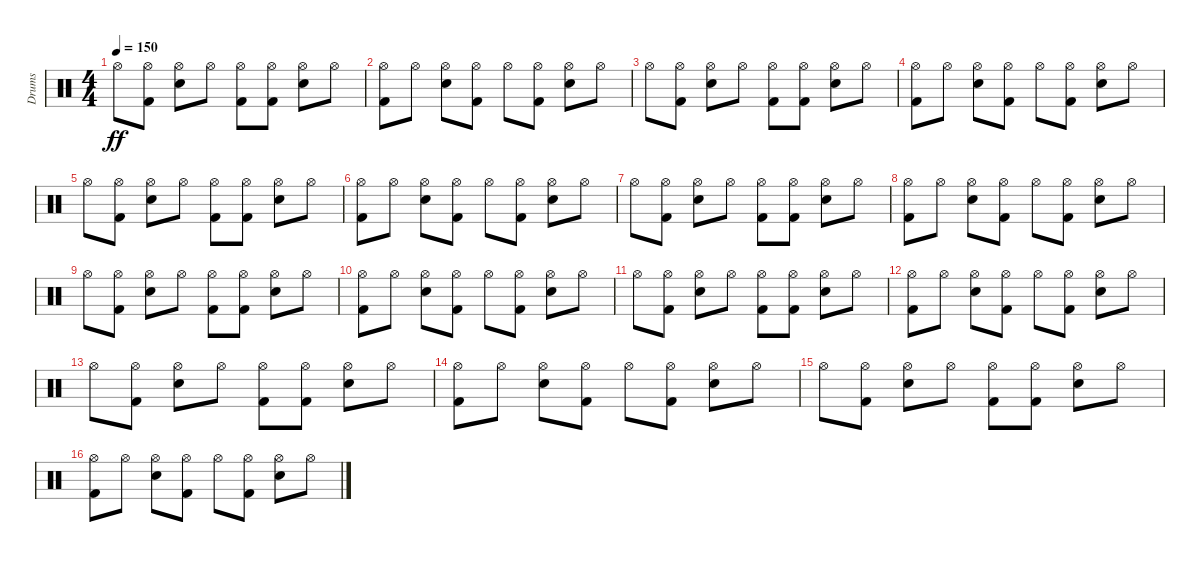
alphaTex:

\track ("Drums" "Drums") {instrument percussion}
\staff {score}
\articulation defaults
\ts (4 4)
\tempo 150
\clef neutral
\ks c "Hi-Hat (open)".8{dy ff}
("Kick (hit) 2" "Hi-Hat (open)").8 ("Snare (hit) 2" "Hi-Hat (open)").8 "Hi-Hat (open)".8 ("Kick (hit) 2" "Hi-Hat (open)").8 ("Kick (hit) 2" "Hi-Hat (open)").8 ("Snare (hit) 2" "Hi-Hat (open)").8 "Hi-Hat (open)".8 |
("Kick (hit) 2" "Hi-Hat (open)").8 "Hi-Hat (open)".8 ("Snare (hit) 2" "Hi-Hat (open)").8 ("Kick (hit) 2" "Hi-Hat (open)").8 "Hi-Hat (open)".8 ("Kick (hit) 2" "Hi-Hat (open)").8 ("Snare (hit) 2" "Hi-Hat (open)").8 "Hi-Hat (open)".8 |
"Hi-Hat (open)".8 ("Kick (hit) 2" "Hi-Hat (open)").8 ("Snare (hit) 2" "Hi-Hat (open)").8 "Hi-Hat (open)".8 ("Kick (hit) 2" "Hi-Hat (open)").8 ("Kick (hit) 2" "Hi-Hat (open)").8 ("Snare (hit) 2" "Hi-Hat (open)").8 "Hi-Hat (open)".8 |
("Kick (hit) 2" "Hi-Hat (open)").8 "Hi-Hat (open)".8 ("Snare (hit) 2" "Hi-Hat (open)").8 ("Kick (hit) 2" "Hi-Hat (open)").8 "Hi-Hat (open)".8 ("Kick (hit) 2" "Hi-Hat (open)").8 ("Snare (hit) 2" "Hi-Hat (open)").8 "Hi-Hat (open)".8 |
"Hi-Hat (open)".8 ("Kick (hit) 2" "Hi-Hat (open)").8 ("Snare (hit) 2" "Hi-Hat (open)").8 "Hi-Hat (open)".8 ("Kick (hit) 2" "Hi-Hat (open)").8 ("Kick (hit) 2" "Hi-Hat (open)").8 ("Snare (hit) 2" "Hi-Hat (open)").8 "Hi-Hat (open)".8 |
("Kick (hit) 2" "Hi-Hat (open)").8 "Hi-Hat (open)".8 ("Snare (hit) 2" "Hi-Hat (open)").8 ("Kick (hit) 2" "Hi-Hat (open)").8 "Hi-Hat (open)".8 ("Kick (hit) 2" "Hi-Hat (open)").8 ("Snare (hit) 2" "Hi-Hat (open)").8 "Hi-Hat (open)".8 |
"Hi-Hat (open)".8 ("Kick (hit) 2" "Hi-Hat (open)").8 ("Snare (hit) 2" "Hi-Hat (open)").8 "Hi-Hat (open)".8 ("Kick (hit) 2" "Hi-Hat (open)").8 ("Kick (hit) 2" "Hi-Hat (open)").8 ("Snare (hit) 2" "Hi-Hat (open)").8 "Hi-Hat (open)".8 |
("Kick (hit) 2" "Hi-Hat (open)").8 "Hi-Hat (open)".8 ("Snare (hit) 2" "Hi-Hat (open)").8 ("Kick (hit) 2" "Hi-Hat (open)").8 "Hi-Hat (open)".8 ("Kick (hit) 2" "Hi-Hat (open)").8 ("Snare (hit) 2" "Hi-Hat (open)").8 "Hi-Hat (open)".8 |
"Hi-Hat (open)".8 ("Kick (hit) 2" "Hi-Hat (open)").8 ("Snare (hit) 2" "Hi-Hat (open)").8 "Hi-Hat (open)".8 ("Kick (hit) 2" "Hi-Hat (open)").8 ("Kick (hit) 2" "Hi-Hat (open)").8 ("Snare (hit) 2" "Hi-Hat (open)").8 "Hi-Hat (open)".8 |
("Kick (hit) 2" "Hi-Hat (open)").8 "Hi-Hat (open)".8 ("Snare (hit) 2" "Hi-Hat (open)").8 ("Kick (hit) 2" "Hi-Hat (open)").8 "Hi-Hat (open)".8 ("Kick (hit) 2" "Hi-Hat (open)").8 ("Snare (hit) 2" "Hi-Hat (open)").8 "Hi-Hat (open)".8 |
"Hi-Hat (open)".8 ("Kick (hit) 2" "Hi-Hat (open)").8 ("Snare (hit) 2" "Hi-Hat (open)").8 "Hi-Hat (open)".8 ("Kick (hit) 2" "Hi-Hat (open)").8 ("Kick (hit) 2" "Hi-Hat (open)").8 ("Snare (hit) 2" "Hi-Hat (open)").8 "Hi-Hat (open)".8 |
("Kick (hit) 2" "Hi-Hat (open)").8 "Hi-Hat (open)".8 ("Snare (hit) 2" "Hi-Hat (open)").8 ("Kick (hit) 2" "Hi-Hat (open)").8 "Hi-Hat (open)".8 ("Kick (hit) 2" "Hi-Hat (open)").8 ("Snare (hit) 2" "Hi-Hat (open)").8 "Hi-Hat (open)".8 |
"Hi-Hat (open)".8 ("Kick (hit) 2" "Hi-Hat (open)").8 ("Snare (hit) 2" "Hi-Hat (open)").8 "Hi-Hat (open)".8 ("Kick (hit) 2" "Hi-Hat (open)").8 ("Kick (hit) 2" "Hi-Hat (open)").8 ("Snare (hit) 2" "Hi-Hat (open)").8 "Hi-Hat (open)".8 |
("Kick (hit) 2" "Hi-Hat (open)").8 "Hi-Hat (open)".8 ("Snare (hit) 2" "Hi-Hat (open)").8 ("Kick (hit) 2" "Hi-Hat (open)").8 "Hi-Hat (open)".8 ("Kick (hit) 2" "Hi-Hat (open)").8 ("Snare (hit) 2" "Hi-Hat (open)").8 "Hi-Hat (open)".8 |
"Hi-Hat (open)".8 ("Kick (hit) 2" "Hi-Hat (open)").8 ("Snare (hit) 2" "Hi-Hat (open)").8 "Hi-Hat (open)".8 ("Kick (hit) 2" "Hi-Hat (open)").8 ("Kick (hit) 2" "Hi-Hat (open)").8 ("Snare (hit) 2" "Hi-Hat (open)").8 "Hi-Hat (open)".8 |
("Kick (hit) 2" "Hi-Hat (open)").8 "Hi-Hat (open)".8 ("Snare (hit) 2" "Hi-Hat (open)").8 ("Kick (hit) 2" "Hi-Hat (open)").8 "Hi-Hat (open)".8 ("Kick (hit) 2" "Hi-Hat (open)").8 ("Snare (hit) 2" "Hi-Hat (open)").8 "Hi-Hat (open)".8
